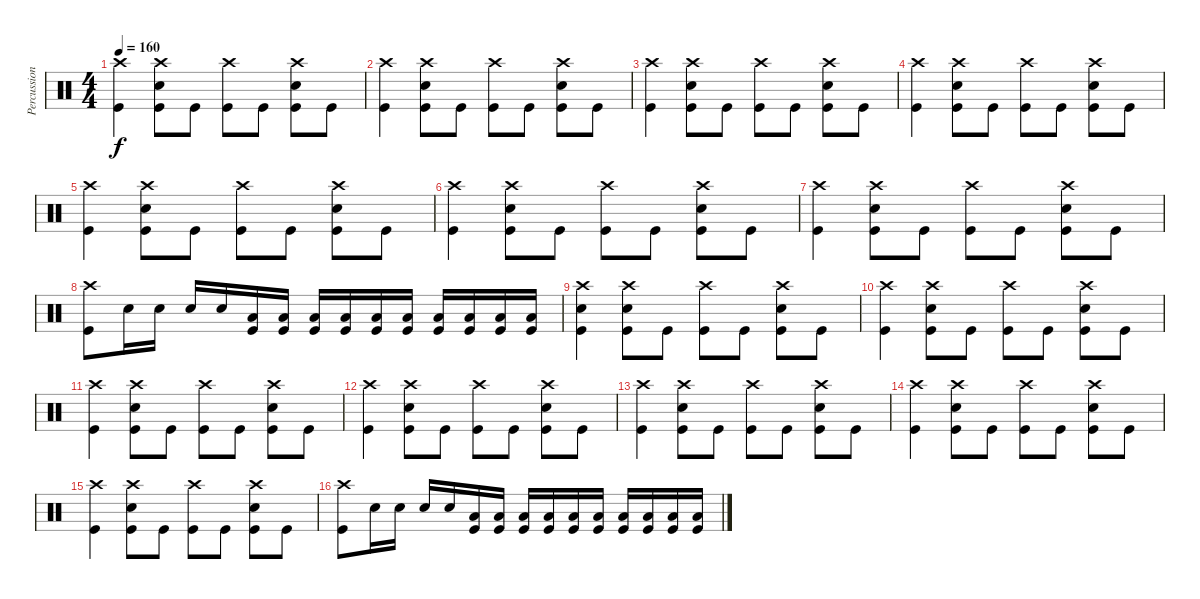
\track ("Percussions" "Percussion") {instrument percussion}
\staff {score}
\articulation defaults
\ts (4 4)
\tempo 160
\clef neutral
\ks c
("Crash high (hit)" "Kick (hit)").4{dy f} ("Crash high (hit)" "Snare (hit) 2" "Kick (hit)").8 "Kick (hit)".8 ("Crash high (hit)" "Kick (hit)").8 "Kick (hit)".8 ("Crash high (hit)" "Snare (hit) 2" "Kick (hit)").8 "Kick (hit)".8 |
("Crash high (hit)" "Kick (hit)").4 ("Crash high (hit)" "Snare (hit) 2" "Kick (hit)").8 "Kick (hit)".8 ("Crash high (hit)" "Kick (hit)").8 "Kick (hit)".8 ("Crash high (hit)" "Snare (hit) 2" "Kick (hit)").8 "Kick (hit)".8 |
("Crash high (hit)" "Kick (hit)").4 ("Crash high (hit)" "Snare (hit) 2" "Kick (hit)").8 "Kick (hit)".8 ("Crash high (hit)" "Kick (hit)").8 "Kick (hit)".8 ("Crash high (hit)" "Snare (hit) 2" "Kick (hit)").8 "Kick (hit)".8 |
("Crash high (hit)" "Kick (hit)").4 ("Crash high (hit)" "Snare (hit) 2" "Kick (hit)").8 "Kick (hit)".8 ("Crash high (hit)" "Kick (hit)").8 "Kick (hit)".8 ("Crash high (hit)" "Snare (hit) 2" "Kick (hit)").8 "Kick (hit)".8 |
("Crash high (hit)" "Kick (hit)").4 ("Crash high (hit)" "Snare (hit) 2" "Kick (hit)").8 "Kick (hit)".8 ("Crash high (hit)" "Kick (hit)").8 "Kick (hit)".8 ("Crash high (hit)" "Snare (hit) 2" "Kick (hit)").8 "Kick (hit)".8 |
("Crash high (hit)" "Kick (hit)").4 ("Crash high (hit)" "Snare (hit) 2" "Kick (hit)").8 "Kick (hit)".8 ("Crash high (hit)" "Kick (hit)").8 "Kick (hit)".8 ("Crash high (hit)" "Snare (hit) 2" "Kick (hit)").8 "Kick (hit)".8 |
("Crash high (hit)" "Kick (hit)").4 ("Crash high (hit)" "Snare (hit) 2" "Kick (hit)").8 "Kick (hit)".8 ("Crash high (hit)" "Kick (hit)").8 "Kick (hit)".8 ("Crash high (hit)" "Snare (hit) 2" "Kick (hit)").8 "Kick (hit)".8 |
("Crash high (hit)" "Kick (hit)").8 "Snare (hit) 2".16 "Snare (hit) 2".16 "Snare (hit) 2".16 "Snare (hit) 2".16 ("Low Tom (hit)" "Kick (hit)").16 ("Low Tom (hit)" "Kick (hit)").16 ("Low Tom (hit)" "Kick (hit)").16 ("Low Tom (hit)" "Kick (hit)").16 ("Low Tom (hit)" "Kick (hit)").16 ("Low Tom (hit)" "Kick (hit)").16 ("Low Tom (hit)" "Kick (hit)").16 ("Low Tom (hit)" "Kick (hit)").16 ("Low Tom (hit)" "Kick (hit)").16 ("Low Tom (hit)" "Kick (hit)").16 |
("Crash high (hit)" "Snare (hit) 2" "Kick (hit)").4 ("Crash high (hit)" "Snare (hit) 2" "Kick (hit)").8 "Kick (hit)".8 ("Crash high (hit)" "Kick (hit)").8 "Kick (hit)".8 ("Crash high (hit)" "Snare (hit) 2" "Kick (hit)").8 "Kick (hit)".8 |
("Crash high (hit)" "Kick (hit)").4 ("Crash high (hit)" "Snare (hit) 2" "Kick (hit)").8 "Kick (hit)".8 ("Crash high (hit)" "Kick (hit)").8 "Kick (hit)".8 ("Crash high (hit)" "Snare (hit) 2" "Kick (hit)").8 "Kick (hit)".8 |
("Crash high (hit)" "Kick (hit)").4 ("Crash high (hit)" "Snare (hit) 2" "Kick (hit)").8 "Kick (hit)".8 ("Crash high (hit)" "Kick (hit)").8 "Kick (hit)".8 ("Crash high (hit)" "Snare (hit) 2" "Kick (hit)").8 "Kick (hit)".8 |
("Crash high (hit)" "Kick (hit)").4 ("Crash high (hit)" "Snare (hit) 2" "Kick (hit)").8 "Kick (hit)".8 ("Crash high (hit)" "Kick (hit)").8 "Kick (hit)".8 ("Crash high (hit)" "Snare (hit) 2" "Kick (hit)").8 "Kick (hit)".8 |
("Crash high (hit)" "Kick (hit)").4 ("Crash high (hit)" "Snare (hit) 2" "Kick (hit)").8 "Kick (hit)".8 ("Crash high (hit)" "Kick (hit)").8 "Kick (hit)".8 ("Crash high (hit)" "Snare (hit) 2" "Kick (hit)").8 "Kick (hit)".8 |
("Crash high (hit)" "Kick (hit)").4 ("Crash high (hit)" "Snare (hit) 2" "Kick (hit)").8 "Kick (hit)".8 ("Crash high (hit)" "Kick (hit)").8 "Kick (hit)".8 ("Crash high (hit)" "Snare (hit) 2" "Kick (hit)").8 "Kick (hit)".8 |
("Crash high (hit)" "Kick (hit)").4 ("Crash high (hit)" "Snare (hit) 2" "Kick (hit)").8 "Kick (hit)".8 ("Crash high (hit)" "Kick (hit)").8 "Kick (hit)".8 ("Crash high (hit)" "Snare (hit) 2" "Kick (hit)").8 "Kick (hit)".8 |
("Crash high (hit)" "Kick (hit)").8 "Snare (hit) 2".16 "Snare (hit) 2".16 "Snare (hit) 2".16 "Snare (hit) 2".16 ("Low Tom (hit)" "Kick (hit)").16 ("Low Tom (hit)" "Kick (hit)").16 ("Low Tom (hit)" "Kick (hit)").16 ("Low Tom (hit)" "Kick (hit)").16 ("Low Tom (hit)" "Kick (hit)").16 ("Low Tom (hit)" "Kick (hit)").16 ("Low Tom (hit)" "Kick (hit)").16 ("Low Tom (hit)" "Kick (hit)").16 ("Low Tom (hit)" "Kick (hit)").16 ("Low Tom (hit)" "Kick (hit)").16
